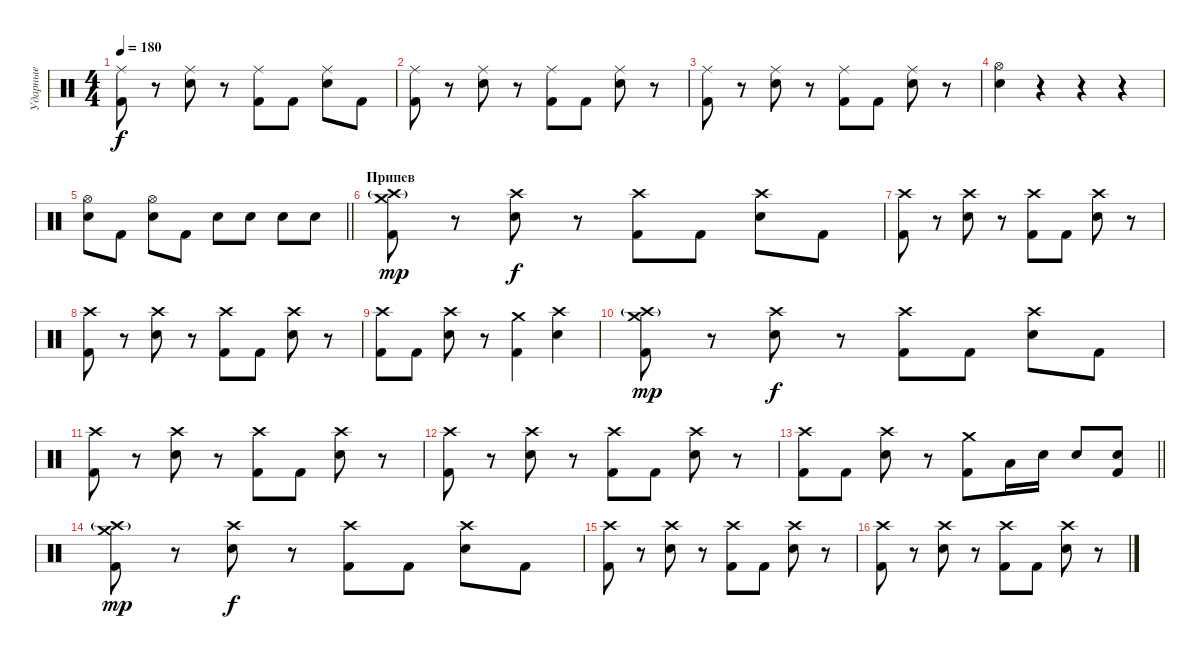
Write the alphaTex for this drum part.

\track ("Ударные" "Ударные") {instrument percussion}
\staff {score}
\articulation defaults
\ts (4 4)
\tempo 180
\clef neutral
\ks c
("Ride (middle)" "Kick (hit) 2").8{dy f} r.8 ("Ride (middle)" "Snare (hit) 2").8 r.8 ("Ride (middle)" "Kick (hit) 2").8 "Kick (hit) 2".8 ("Ride (middle)" "Snare (hit) 2").8 "Kick (hit) 2".8 |
("Ride (middle)" "Kick (hit) 2").8 r.8 ("Ride (middle)" "Snare (hit) 2").8 r.8 ("Ride (middle)" "Kick (hit) 2").8 "Kick (hit) 2".8 ("Ride (middle)" "Snare (hit) 2").8 r.8 |
("Ride (middle)" "Kick (hit) 2").8 r.8 ("Ride (middle)" "Snare (hit) 2").8 r.8 ("Ride (middle)" "Kick (hit) 2").8 "Kick (hit) 2".8 ("Ride (middle)" "Snare (hit) 2").8 r.8 |
("Hi-Hat (open)" "Snare (hit) 2").4 r.4 r.4 r.4 |
\barLineRight lightlight
("Hi-Hat (open)" "Snare (hit) 2").8 "Kick (hit) 2".8 ("Hi-Hat (open)" "Snare (hit) 2").8 "Kick (hit) 2".8 "Snare (hit) 2".8 "Snare (hit) 2".8 "Snare (hit) 2".8 "Snare (hit) 2".8 |
\section ("" "Припев")
("Crash medium (hit)" "Crash high (hit)"{g} "Kick (hit) 2").8{dy mp} r.8 ("Crash high (hit)" "Snare (hit) 2").8{dy f} r.8 ("Crash high (hit)" "Kick (hit) 2").8 "Kick (hit) 2".8 ("Crash high (hit)" "Snare (hit) 2").8 "Kick (hit) 2".8 |
("Crash high (hit)" "Kick (hit) 2").8 r.8 ("Crash high (hit)" "Snare (hit) 2").8 r.8 ("Crash high (hit)" "Kick (hit) 2").8 "Kick (hit) 2".8 ("Crash high (hit)" "Snare (hit) 2").8 r.8 |
("Crash high (hit)" "Kick (hit) 2").8 r.8 ("Crash high (hit)" "Snare (hit) 2").8 r.8 ("Crash high (hit)" "Kick (hit) 2").8 "Kick (hit) 2".8 ("Crash high (hit)" "Snare (hit) 2").8 r.8 |
("Crash high (hit)" "Kick (hit) 2").8 "Kick (hit) 2".8 ("Crash high (hit)" "Snare (hit) 2").8 r.8 ("Crash medium (hit)" "Kick (hit) 2").4 ("Crash high (hit)" "Snare (hit) 2").4 |
("Crash medium (hit)" "Crash high (hit)"{g} "Kick (hit) 2").8{dy mp} r.8 ("Crash high (hit)" "Snare (hit) 2").8{dy f} r.8 ("Crash high (hit)" "Kick (hit) 2").8 "Kick (hit) 2".8 ("Crash high (hit)" "Snare (hit) 2").8 "Kick (hit) 2".8 |
("Crash high (hit)" "Kick (hit) 2").8 r.8 ("Crash high (hit)" "Snare (hit) 2").8 r.8 ("Crash high (hit)" "Kick (hit) 2").8 "Kick (hit) 2".8 ("Crash high (hit)" "Snare (hit) 2").8 r.8 |
("Crash high (hit)" "Kick (hit) 2").8 r.8 ("Crash high (hit)" "Snare (hit) 2").8 r.8 ("Crash high (hit)" "Kick (hit) 2").8 "Kick (hit) 2".8 ("Crash high (hit)" "Snare (hit) 2").8 r.8 |
\barLineRight lightlight
("Crash high (hit)" "Kick (hit) 2").8 "Kick (hit) 2".8 ("Crash high (hit)" "Snare (hit) 2").8 r.8 ("Crash medium (hit)" "Kick (hit) 2").8 "Low Tom (hit)".16 "Snare (hit) 2".16 "Snare (hit) 2".8 ("Snare (hit) 2" "Kick (hit) 2").8 |
("Crash medium (hit)" "Crash high (hit)"{g} "Kick (hit) 2").8{dy mp} r.8 ("Crash high (hit)" "Snare (hit) 2").8{dy f} r.8 ("Crash high (hit)" "Kick (hit) 2").8 "Kick (hit) 2".8 ("Crash high (hit)" "Snare (hit) 2").8 "Kick (hit) 2".8 |
("Crash high (hit)" "Kick (hit) 2").8 r.8 ("Crash high (hit)" "Snare (hit) 2").8 r.8 ("Crash high (hit)" "Kick (hit) 2").8 "Kick (hit) 2".8 ("Crash high (hit)" "Snare (hit) 2").8 r.8 |
("Crash high (hit)" "Kick (hit) 2").8 r.8 ("Crash high (hit)" "Snare (hit) 2").8 r.8 ("Crash high (hit)" "Kick (hit) 2").8 "Kick (hit) 2".8 ("Crash high (hit)" "Snare (hit) 2").8 r.8
